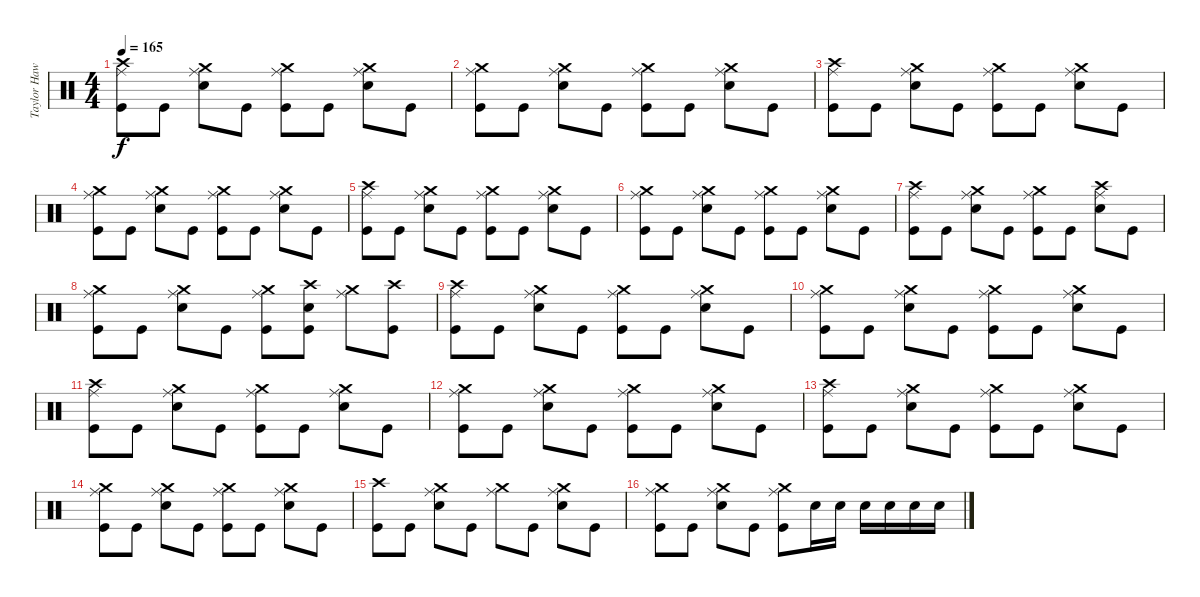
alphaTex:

\track ("Taylor Hawkins - Drums" "Taylor Haw") {instrument percussion}
\staff {score}
\articulation defaults
\ts (4 4)
\tempo 165
\clef neutral
\ks c
("Crash high (hit)" "Ride (middle)" "Kick (hit)").8{dy f} "Kick (hit)".8 ("Crash medium (hit)" "Electric Snare (hit)" "Ride (middle)").8 "Kick (hit)".8 ("Crash medium (hit)" "Ride (middle)" "Kick (hit)").8 "Kick (hit)".8 ("Crash medium (hit)" "Electric Snare (hit)" "Ride (middle)").8 "Kick (hit)".8 |
("Crash medium (hit)" "Ride (middle)" "Kick (hit)").8 "Kick (hit)".8 ("Crash medium (hit)" "Electric Snare (hit)" "Ride (middle)").8 "Kick (hit)".8 ("Crash medium (hit)" "Ride (middle)" "Kick (hit)").8 "Kick (hit)".8 ("Crash medium (hit)" "Electric Snare (hit)" "Ride (middle)").8 "Kick (hit)".8 |
("Crash high (hit)" "Ride (middle)" "Kick (hit)").8 "Kick (hit)".8 ("Crash medium (hit)" "Electric Snare (hit)" "Ride (middle)").8 "Kick (hit)".8 ("Crash medium (hit)" "Ride (middle)" "Kick (hit)").8 "Kick (hit)".8 ("Crash medium (hit)" "Electric Snare (hit)" "Ride (middle)").8 "Kick (hit)".8 |
("Crash medium (hit)" "Ride (middle)" "Kick (hit)").8 "Kick (hit)".8 ("Crash medium (hit)" "Electric Snare (hit)" "Ride (middle)").8 "Kick (hit)".8 ("Crash medium (hit)" "Ride (middle)" "Kick (hit)").8 "Kick (hit)".8 ("Crash medium (hit)" "Electric Snare (hit)" "Ride (middle)").8 "Kick (hit)".8 |
("Crash high (hit)" "Ride (middle)" "Kick (hit)").8 "Kick (hit)".8 ("Crash medium (hit)" "Electric Snare (hit)" "Ride (middle)").8 "Kick (hit)".8 ("Crash medium (hit)" "Ride (middle)" "Kick (hit)").8 "Kick (hit)".8 ("Crash medium (hit)" "Electric Snare (hit)" "Ride (middle)").8 "Kick (hit)".8 |
("Crash medium (hit)" "Ride (middle)" "Kick (hit)").8 "Kick (hit)".8 ("Crash medium (hit)" "Electric Snare (hit)" "Ride (middle)").8 "Kick (hit)".8 ("Crash medium (hit)" "Ride (middle)" "Kick (hit)").8 "Kick (hit)".8 ("Crash medium (hit)" "Electric Snare (hit)" "Ride (middle)").8 "Kick (hit)".8 |
("Crash high (hit)" "Ride (middle)" "Kick (hit)").8 "Kick (hit)".8 ("Crash medium (hit)" "Electric Snare (hit)" "Ride (middle)").8 "Kick (hit)".8 ("Crash medium (hit)" "Ride (middle)" "Kick (hit)").8 "Kick (hit)".8 ("Crash high (hit)" "Electric Snare (hit)" "Ride (middle)").8 "Kick (hit)".8 |
("Crash medium (hit)" "Ride (middle)" "Kick (hit)").8 "Kick (hit)".8 ("Crash medium (hit)" "Electric Snare (hit)" "Ride (middle)").8 "Kick (hit)".8 ("Crash medium (hit)" "Ride (middle)" "Kick (hit)").8 ("Crash high (hit)" "Electric Snare (hit)" "Kick (hit)").8 ("Crash medium (hit)" "Ride (middle)").8 ("Crash high (hit)" "Kick (hit)").8 |
("Crash high (hit)" "Ride (middle)" "Kick (hit)").8 "Kick (hit)".8 ("Crash medium (hit)" "Electric Snare (hit)" "Ride (middle)").8 "Kick (hit)".8 ("Crash medium (hit)" "Ride (middle)" "Kick (hit)").8 "Kick (hit)".8 ("Crash medium (hit)" "Electric Snare (hit)" "Ride (middle)").8 "Kick (hit)".8 |
("Crash medium (hit)" "Ride (middle)" "Kick (hit)").8 "Kick (hit)".8 ("Crash medium (hit)" "Electric Snare (hit)" "Ride (middle)").8 "Kick (hit)".8 ("Crash medium (hit)" "Ride (middle)" "Kick (hit)").8 "Kick (hit)".8 ("Crash medium (hit)" "Electric Snare (hit)" "Ride (middle)").8 "Kick (hit)".8 |
("Crash high (hit)" "Ride (middle)" "Kick (hit)").8 "Kick (hit)".8 ("Crash medium (hit)" "Electric Snare (hit)" "Ride (middle)").8 "Kick (hit)".8 ("Crash medium (hit)" "Ride (middle)" "Kick (hit)").8 "Kick (hit)".8 ("Crash medium (hit)" "Electric Snare (hit)" "Ride (middle)").8 "Kick (hit)".8 |
("Crash medium (hit)" "Ride (middle)" "Kick (hit)").8 "Kick (hit)".8 ("Crash medium (hit)" "Electric Snare (hit)" "Ride (middle)").8 "Kick (hit)".8 ("Crash medium (hit)" "Ride (middle)" "Kick (hit)").8 "Kick (hit)".8 ("Crash medium (hit)" "Electric Snare (hit)" "Ride (middle)").8 "Kick (hit)".8 |
("Crash high (hit)" "Ride (middle)" "Kick (hit)").8 "Kick (hit)".8 ("Crash medium (hit)" "Electric Snare (hit)" "Ride (middle)").8 "Kick (hit)".8 ("Crash medium (hit)" "Ride (middle)" "Kick (hit)").8 "Kick (hit)".8 ("Crash medium (hit)" "Electric Snare (hit)" "Ride (middle)").8 "Kick (hit)".8 |
("Crash medium (hit)" "Ride (middle)" "Kick (hit)").8 "Kick (hit)".8 ("Crash medium (hit)" "Electric Snare (hit)" "Ride (middle)").8 "Kick (hit)".8 ("Crash medium (hit)" "Ride (middle)" "Kick (hit)").8 "Kick (hit)".8 ("Crash medium (hit)" "Electric Snare (hit)" "Ride (middle)").8 "Kick (hit)".8 |
("Crash high (hit)" "Kick (hit)").8 "Kick (hit)".8 ("Crash medium (hit)" "Electric Snare (hit)" "Ride (middle)").8 "Kick (hit)".8 ("Crash medium (hit)" "Ride (middle)").8 "Kick (hit)".8 ("Crash medium (hit)" "Electric Snare (hit)" "Ride (middle)").8 "Kick (hit)".8 |
("Crash medium (hit)" "Ride (middle)" "Kick (hit)").8 "Kick (hit)".8 ("Crash medium (hit)" "Electric Snare (hit)" "Ride (middle)").8 "Kick (hit)".8 ("Crash medium (hit)" "Ride (middle)" "Kick (hit)").8 "Electric Snare (hit)".16 "Electric Snare (hit)".16 "Electric Snare (hit)".16 "Electric Snare (hit)".16 "Electric Snare (hit)".16 "Electric Snare (hit)".16
